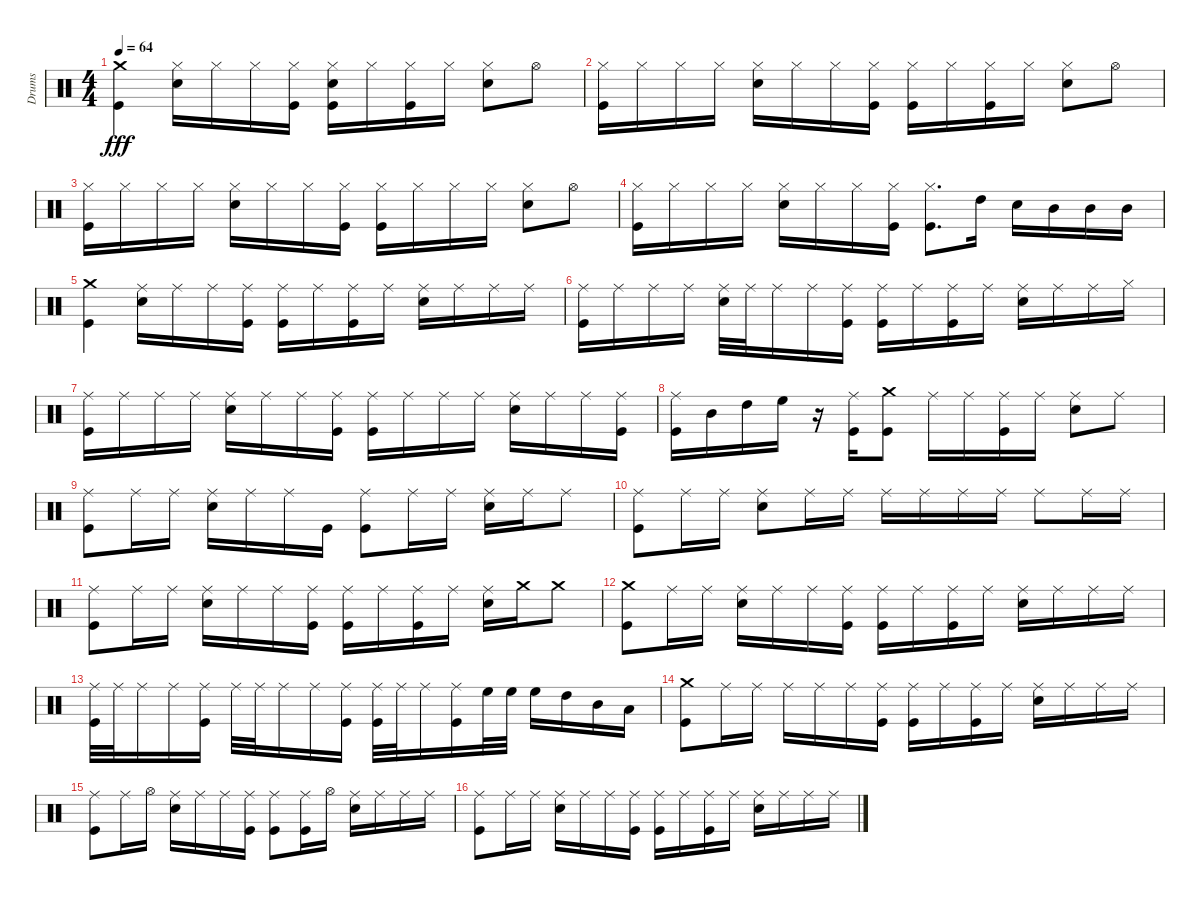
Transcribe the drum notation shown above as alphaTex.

\track ("Drums" "Drums") {instrument percussion}
\staff {score}
\articulation defaults
\ts (4 4)
\tempo 64
\clef neutral
\scale
0.333333
\ks c
("Crash medium (hit)" "Kick (hit)").4{dy fff} ("Hi-Hat (closed)" "Snare (hit) 2").16 "Hi-Hat (closed)".16 "Hi-Hat (closed)".16 ("Hi-Hat (closed)" "Kick (hit)").16 ("Hi-Hat (closed)" "Snare (hit) 2" "Kick (hit)").16 "Hi-Hat (closed)".16 ("Hi-Hat (closed)" "Kick (hit)").16 "Hi-Hat (closed)".16 ("Hi-Hat (closed)" "Snare (hit) 2").8 "Hi-Hat (open)".8 |
\scale
0.333333 ("Hi-Hat (closed)" "Kick (hit)").16 "Hi-Hat (closed)".16 "Hi-Hat (closed)".16 "Hi-Hat (closed)".16 ("Hi-Hat (closed)" "Snare (hit) 2").16 "Hi-Hat (closed)".16 "Hi-Hat (closed)".16 ("Hi-Hat (closed)" "Kick (hit)").16 ("Hi-Hat (closed)" "Kick (hit)").16 "Hi-Hat (closed)".16 ("Hi-Hat (closed)" "Kick (hit)").16 "Hi-Hat (closed)".16 ("Hi-Hat (closed)" "Snare (hit) 2").8 "Hi-Hat (open)".8 |
\scale
0.333333 ("Hi-Hat (closed)" "Kick (hit)").16 "Hi-Hat (closed)".16 "Hi-Hat (closed)".16 "Hi-Hat (closed)".16 ("Hi-Hat (closed)" "Snare (hit) 2").16 "Hi-Hat (closed)".16 "Hi-Hat (closed)".16 ("Hi-Hat (closed)" "Kick (hit)").16 ("Hi-Hat (closed)" "Kick (hit)").16 "Hi-Hat (closed)".16 "Hi-Hat (closed)".16 "Hi-Hat (closed)".16 ("Hi-Hat (closed)" "Snare (hit) 2").8 "Hi-Hat (open)".8 |
\scale
0.333333 ("Hi-Hat (closed)" "Kick (hit)").16 "Hi-Hat (closed)".16 "Hi-Hat (closed)".16 "Hi-Hat (closed)".16 ("Hi-Hat (closed)" "Snare (hit) 2").16 "Hi-Hat (closed)".16 "Hi-Hat (closed)".16 ("Hi-Hat (closed)" "Kick (hit)").16 ("Hi-Hat (closed)" "Kick (hit)").8{d} "High Tom (hit)".16 "Snare (hit) 2".16 "Mid Tom (hit)".16 "Mid Tom (hit)".16 "Mid Tom (hit)".16 |
\scale
0.333333 ("Crash medium (hit)" "Kick (hit)").4 ("Ride (middle)" "Snare (hit) 2").16 "Ride (middle)".16 "Ride (middle)".16 ("Ride (middle)" "Kick (hit)").16 ("Ride (middle)" "Kick (hit)").16 "Ride (middle)".16 ("Ride (middle)" "Kick (hit)").16 "Ride (middle)".16 ("Ride (middle)" "Snare (hit) 2").16 "Ride (middle)".16 "Ride (middle)".16 "Ride (middle)".16 |
\scale
0.333333 ("Ride (middle)" "Kick (hit)").16 "Ride (middle)".16 "Ride (middle)".16 "Ride (middle)".16 ("Ride (middle)" "Snare (hit) 2").32 "Ride (middle)".32 "Ride (middle)".16 "Ride (middle)".16 ("Ride (middle)" "Kick (hit)").16 ("Ride (middle)" "Kick (hit)").16 "Ride (middle)".16 ("Ride (middle)" "Kick (hit)").16 "Ride (middle)".16 ("Ride (middle)" "Snare (hit) 2").16 "Ride (middle)".16 "Ride (middle)".16 "Hi-Hat (closed)".16 |
\scale
0.333333 ("Ride (middle)" "Kick (hit)").16 "Ride (middle)".16 "Ride (middle)".16 "Ride (middle)".16 ("Ride (middle)" "Snare (hit) 2").16 "Ride (middle)".16 "Ride (middle)".16 ("Ride (middle)" "Kick (hit)").16 ("Ride (middle)" "Kick (hit)").16 "Ride (middle)".16 "Ride (middle)".16 "Ride (middle)".16 ("Ride (middle)" "Snare (hit) 2").16 "Ride (middle)".16 "Ride (middle)".16 ("Ride (middle)" "Kick (hit)").16 |
\scale
0.333333 ("Ride (middle)" "Kick (hit)").16 "Mid Tom (hit)".16 "High Tom (hit)".16 "High Floor Tom (hit)".16 r.16 ("Ride (middle)" "Kick (hit)").16 ("Crash medium (hit)" "Kick (hit)").8 "Ride (middle)".16 "Ride (middle)".16 ("Ride (middle)" "Kick (hit)").16 "Ride (middle)".16 ("Ride (middle)" "Snare (hit) 2").8 "Ride (middle)".8 |
\scale
0.333333 ("Ride (middle)" "Kick (hit)").8 "Ride (middle)".16 "Ride (middle)".16 ("Ride (middle)" "Snare (hit) 2").16 "Ride (middle)".16 "Ride (middle)".16 "Kick (hit)".16 ("Ride (middle)" "Kick (hit)").8 "Ride (middle)".16 "Ride (middle)".16 ("Ride (middle)" "Snare (hit) 2").16 "Ride (middle)".16 "Ride (middle)".8 |
\scale
0.333333 ("Ride (middle)" "Kick (hit)").8 "Ride (middle)".16 "Ride (middle)".16 ("Ride (middle)" "Snare (hit) 2").8 "Ride (middle)".16 "Ride (middle)".16 "Ride (middle)".16 "Ride (middle)".16 "Ride (middle)".16 "Ride (middle)".16 "Ride (middle)".8 "Ride (middle)".16 "Ride (middle)".16 |
\scale
0.333333 ("Ride (middle)" "Kick (hit)").8 "Ride (middle)".16 "Ride (middle)".16 ("Ride (middle)" "Snare (hit) 2").16 "Ride (middle)".16 "Ride (middle)".16 ("Ride (middle)" "Kick (hit)").16 ("Ride (middle)" "Kick (hit)").16 "Ride (middle)".16 ("Ride (middle)" "Kick (hit)").16 "Ride (middle)".16 ("Ride (middle)" "Snare (hit) 2").16 "Crash medium (hit)".16 "Crash medium (hit)".8 |
\scale
0.333333 ("Crash medium (hit)" "Kick (hit)").8 "Ride (middle)".16 "Ride (middle)".16 ("Ride (middle)" "Snare (hit) 2").16 "Ride (middle)".16 "Ride (middle)".16 ("Ride (middle)" "Kick (hit)").16 ("Ride (middle)" "Kick (hit)").16 "Ride (middle)".16 ("Ride (middle)" "Kick (hit)").16 "Ride (middle)".16 ("Ride (middle)" "Snare (hit) 2").16 "Ride (middle)".16 "Ride (middle)".16 "Ride (middle)".16 |
\scale
0.333333 ("Ride (middle)" "Kick (hit)").32 "Ride (middle)".32 "Ride (middle)".16 "Ride (middle)".16 ("Ride (middle)" "Kick (hit)").16 "Ride (middle)".32 "Ride (middle)".32 "Ride (middle)".16 "Ride (middle)".16 ("Ride (middle)" "Kick (hit)").16 ("Ride (middle)" "Kick (hit)").32 "Ride (middle)".32 "Ride (middle)".16 ("Ride (middle)" "Kick (hit)").16 "High Floor Tom (hit)".32 "High Floor Tom (hit)".32 "High Floor Tom (hit)".16 "High Tom (hit)".16 "Mid Tom (hit)".16 "Low Tom (hit)".16 |
\scale
0.333333 ("Crash medium (hit)" "Kick (hit)").8 "Ride (middle)".16 "Ride (middle)".16 "Ride (middle)".16 "Ride (middle)".16 "Ride (middle)".16 ("Ride (middle)" "Kick (hit)").16 ("Ride (middle)" "Kick (hit)").16 "Ride (middle)".16 ("Ride (middle)" "Kick (hit)").16 "Ride (middle)".16 ("Ride (middle)" "Snare (hit) 2").16 "Ride (middle)".16 "Ride (middle)".16 "Ride (middle)".16 |
\scale
0.333333 ("Ride (middle)" "Kick (hit)").8 "Ride (middle)".16 "Hi-Hat (open)".16 ("Ride (middle)" "Snare (hit) 2").16 "Ride (middle)".16 "Ride (middle)".16 ("Ride (middle)" "Kick (hit)").16 ("Ride (middle)" "Kick (hit)").8 ("Ride (middle)" "Kick (hit)").16 "Hi-Hat (open)".16 ("Ride (middle)" "Snare (hit) 2").16 "Ride (middle)".16 "Ride (middle)".16 "Ride (middle)".16 |
\scale
0.333333 ("Ride (middle)" "Kick (hit)").8 "Ride (middle)".16 "Ride (middle)".16 ("Ride (middle)" "Snare (hit) 2").16 "Ride (middle)".16 "Ride (middle)".16 ("Ride (middle)" "Kick (hit)").16 ("Ride (middle)" "Kick (hit)").16 "Ride (middle)".16 ("Ride (middle)" "Kick (hit)").16 "Ride (middle)".16 ("Ride (middle)" "Snare (hit) 2").16 "Ride (middle)".16 "Ride (middle)".16 "Ride (middle)".16
